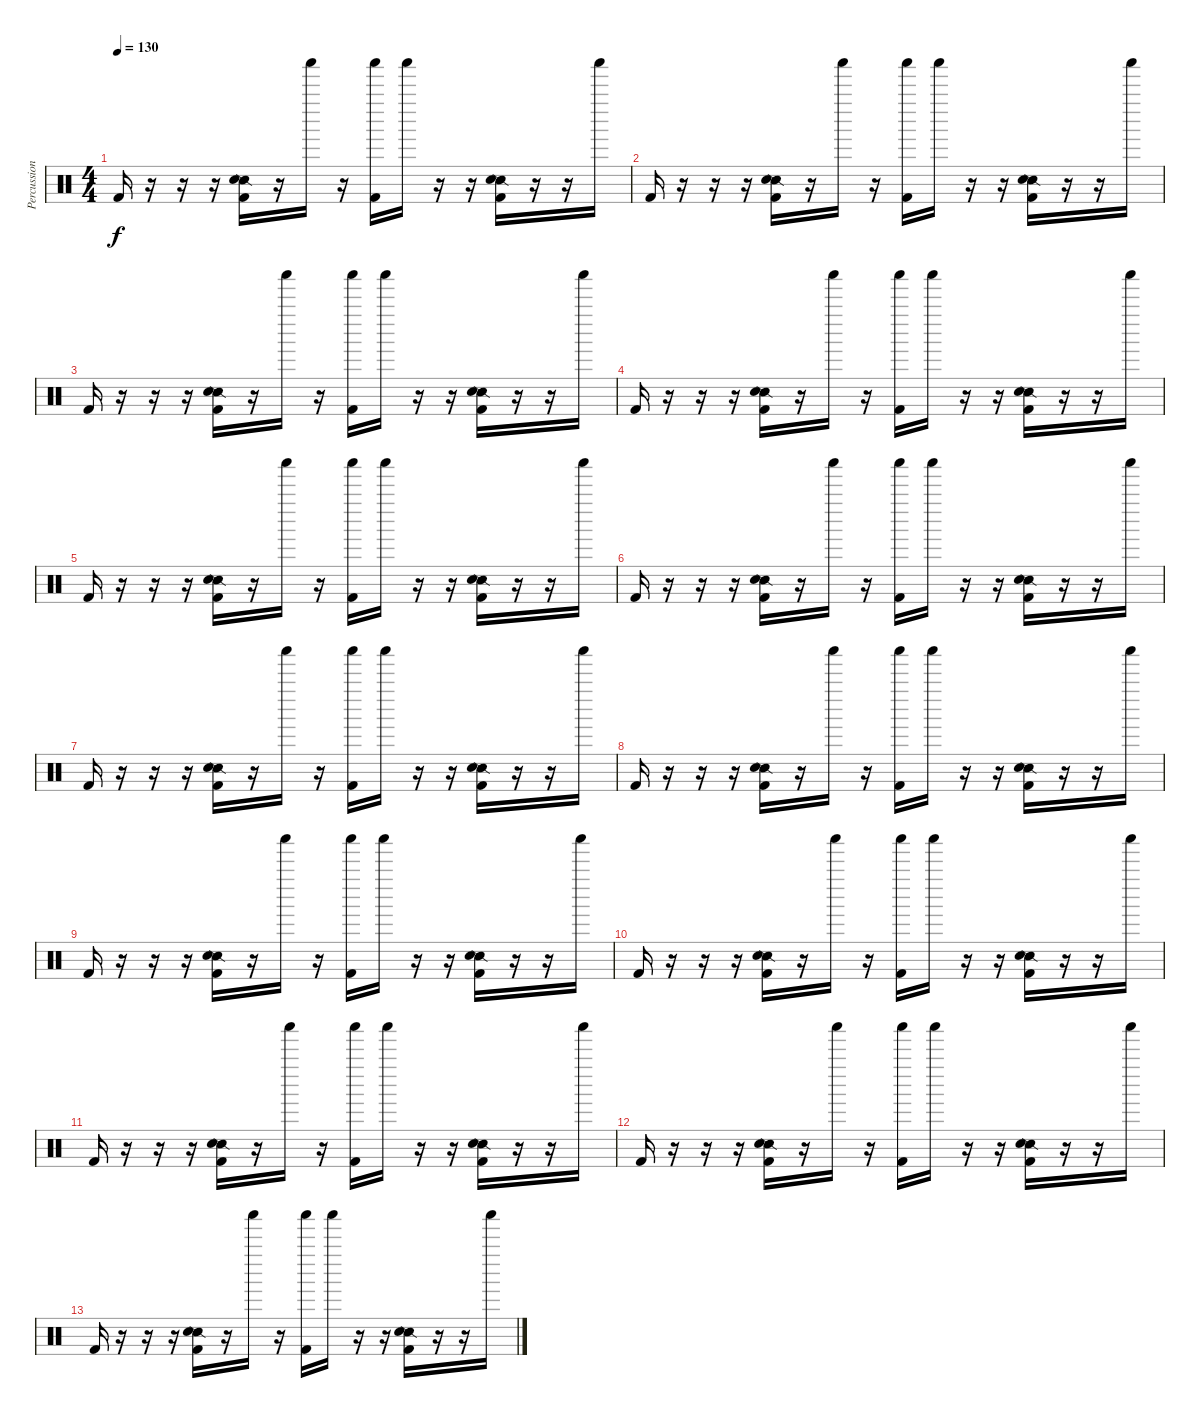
\track ("Percussion" "Percussion") {instrument percussion}
\staff {score}
\articulation defaults
\ts (4 4)
\tempo 130
\clef neutral
\ks c "Kick (hit) 2".16{dy f}
r.16 r.16 r.16 ("Kick (hit) 2" "Snare (side stick) 2" "Electric Snare (hit)").16 r.16 "Shaker (hit)".16 r.16 ("Kick (hit) 2" "Shaker (hit)").16 "Shaker (hit)".16 r.16 r.16 ("Kick (hit) 2" "Snare (side stick) 2" "Electric Snare (hit)").16 r.16 r.16 "Shaker (hit)".16 |
"Kick (hit) 2".16 r.16 r.16 r.16 ("Kick (hit) 2" "Snare (side stick) 2" "Electric Snare (hit)").16 r.16 "Shaker (hit)".16 r.16 ("Kick (hit) 2" "Shaker (hit)").16 "Shaker (hit)".16 r.16 r.16 ("Kick (hit) 2" "Snare (side stick) 2" "Electric Snare (hit)").16 r.16 r.16 "Shaker (hit)".16 |
"Kick (hit) 2".16 r.16 r.16 r.16 ("Kick (hit) 2" "Snare (side stick) 2" "Electric Snare (hit)").16 r.16 "Shaker (hit)".16 r.16 ("Kick (hit) 2" "Shaker (hit)").16 "Shaker (hit)".16 r.16 r.16 ("Kick (hit) 2" "Snare (side stick) 2" "Electric Snare (hit)").16 r.16 r.16 "Shaker (hit)".16 |
"Kick (hit) 2".16 r.16 r.16 r.16 ("Kick (hit) 2" "Snare (side stick) 2" "Electric Snare (hit)").16 r.16 "Shaker (hit)".16 r.16 ("Kick (hit) 2" "Shaker (hit)").16 "Shaker (hit)".16 r.16 r.16 ("Kick (hit) 2" "Snare (side stick) 2" "Electric Snare (hit)").16 r.16 r.16 "Shaker (hit)".16 |
"Kick (hit) 2".16 r.16 r.16 r.16 ("Kick (hit) 2" "Snare (side stick) 2" "Electric Snare (hit)").16 r.16 "Shaker (hit)".16 r.16 ("Kick (hit) 2" "Shaker (hit)").16 "Shaker (hit)".16 r.16 r.16 ("Kick (hit) 2" "Snare (side stick) 2" "Electric Snare (hit)").16 r.16 r.16 "Shaker (hit)".16 |
"Kick (hit) 2".16 r.16 r.16 r.16 ("Kick (hit) 2" "Snare (side stick) 2" "Electric Snare (hit)").16 r.16 "Shaker (hit)".16 r.16 ("Kick (hit) 2" "Shaker (hit)").16 "Shaker (hit)".16 r.16 r.16 ("Kick (hit) 2" "Snare (side stick) 2" "Electric Snare (hit)").16 r.16 r.16 "Shaker (hit)".16 |
"Kick (hit) 2".16 r.16 r.16 r.16 ("Kick (hit) 2" "Snare (side stick) 2" "Electric Snare (hit)").16 r.16 "Shaker (hit)".16 r.16 ("Kick (hit) 2" "Shaker (hit)").16 "Shaker (hit)".16 r.16 r.16 ("Kick (hit) 2" "Snare (side stick) 2" "Electric Snare (hit)").16 r.16 r.16 "Shaker (hit)".16 |
"Kick (hit) 2".16 r.16 r.16 r.16 ("Kick (hit) 2" "Snare (side stick) 2" "Electric Snare (hit)").16 r.16 "Shaker (hit)".16 r.16 ("Kick (hit) 2" "Shaker (hit)").16 "Shaker (hit)".16 r.16 r.16 ("Kick (hit) 2" "Snare (side stick) 2" "Electric Snare (hit)").16 r.16 r.16 "Shaker (hit)".16 |
"Kick (hit) 2".16 r.16 r.16 r.16 ("Kick (hit) 2" "Snare (side stick) 2" "Electric Snare (hit)").16 r.16 "Shaker (hit)".16 r.16 ("Kick (hit) 2" "Shaker (hit)").16 "Shaker (hit)".16 r.16 r.16 ("Kick (hit) 2" "Snare (side stick) 2" "Electric Snare (hit)").16 r.16 r.16 "Shaker (hit)".16 |
"Kick (hit) 2".16 r.16 r.16 r.16 ("Kick (hit) 2" "Snare (side stick) 2" "Electric Snare (hit)").16 r.16 "Shaker (hit)".16 r.16 ("Kick (hit) 2" "Shaker (hit)").16 "Shaker (hit)".16 r.16 r.16 ("Kick (hit) 2" "Snare (side stick) 2" "Electric Snare (hit)").16 r.16 r.16 "Shaker (hit)".16 |
"Kick (hit) 2".16 r.16 r.16 r.16 ("Kick (hit) 2" "Snare (side stick) 2" "Electric Snare (hit)").16 r.16 "Shaker (hit)".16 r.16 ("Kick (hit) 2" "Shaker (hit)").16 "Shaker (hit)".16 r.16 r.16 ("Kick (hit) 2" "Snare (side stick) 2" "Electric Snare (hit)").16 r.16 r.16 "Shaker (hit)".16 |
"Kick (hit) 2".16 r.16 r.16 r.16 ("Kick (hit) 2" "Snare (side stick) 2" "Electric Snare (hit)").16 r.16 "Shaker (hit)".16 r.16 ("Kick (hit) 2" "Shaker (hit)").16 "Shaker (hit)".16 r.16 r.16 ("Kick (hit) 2" "Snare (side stick) 2" "Electric Snare (hit)").16 r.16 r.16 "Shaker (hit)".16 |
"Kick (hit) 2".16 r.16 r.16 r.16 ("Kick (hit) 2" "Snare (side stick) 2" "Electric Snare (hit)").16 r.16 "Shaker (hit)".16 r.16 ("Kick (hit) 2" "Shaker (hit)").16 "Shaker (hit)".16 r.16 r.16 ("Kick (hit) 2" "Snare (side stick) 2" "Electric Snare (hit)").16 r.16 r.16 "Shaker (hit)".16
